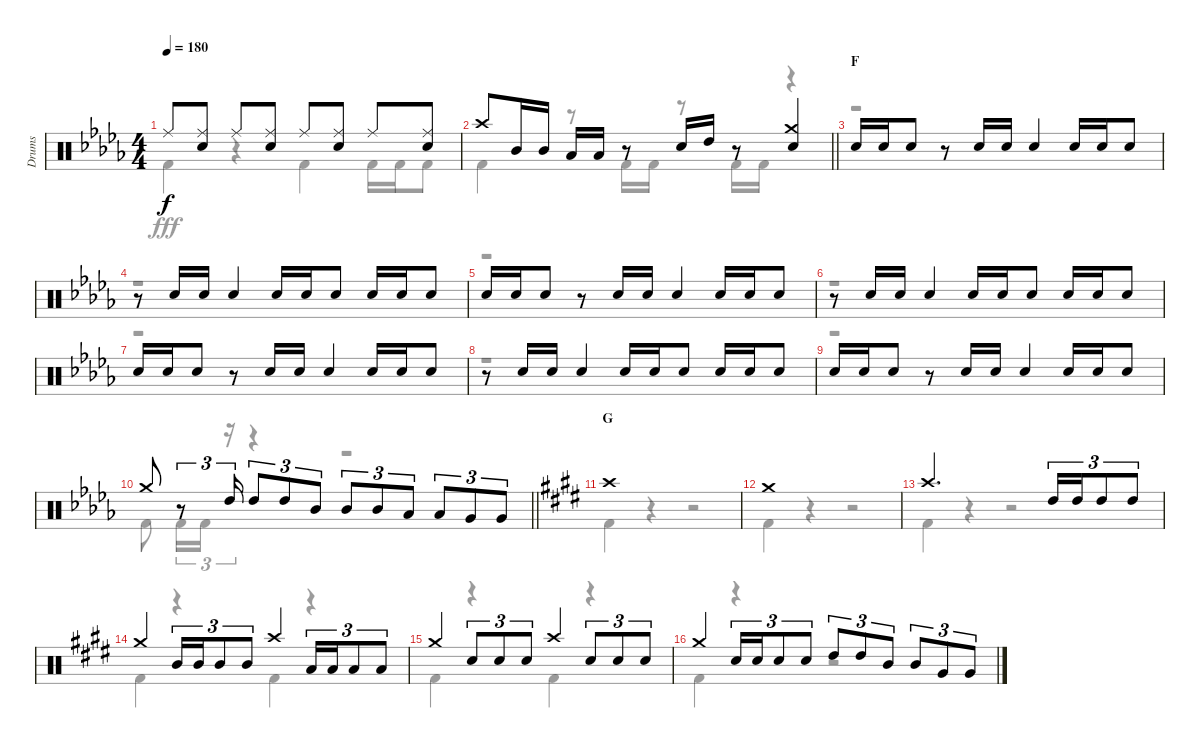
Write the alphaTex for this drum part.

\track ("Drums" "Drums") {instrument percussion}
\staff {score}
\articulation defaults
\voice
\ts (4 4)
\tempo 180
\clef neutral
\ks db "Ride (middle)".8{dy f}
("Ride (middle)" "Snare (hit) 2").8 "Ride (middle)".8 ("Ride (middle)" "Snare (hit) 2").8 "Ride (middle)".8 ("Ride (middle)" "Snare (hit) 2").8 "Ride (middle)".8 ("Ride (middle)" "Snare (hit) 2").8 |
\barLineRight lightlight "Crash high (hit)".8 "Mid Tom (hit)".16 "Mid Tom (hit)".16 "Low Tom (hit)".16 "Low Tom (hit)".16
r.8 "Snare (hit) 2".16 "High Tom (hit)".16 r.8 ("Crash medium (hit)" "Snare (hit) 2").4 |
\section ("" "F")
"Snare (hit) 2".16 "Snare (hit) 2".16 "Snare (hit) 2".8 r.8 "Snare (hit) 2".16 "Snare (hit) 2".16 "Snare (hit) 2".4 "Snare (hit) 2".16 "Snare (hit) 2".16 "Snare (hit) 2".8 |
r.8 "Snare (hit) 2".16 "Snare (hit) 2".16 "Snare (hit) 2".4 "Snare (hit) 2".16 "Snare (hit) 2".16 "Snare (hit) 2".8 "Snare (hit) 2".16 "Snare (hit) 2".16 "Snare (hit) 2".8 |
"Snare (hit) 2".16 "Snare (hit) 2".16 "Snare (hit) 2".8 r.8 "Snare (hit) 2".16 "Snare (hit) 2".16 "Snare (hit) 2".4 "Snare (hit) 2".16 "Snare (hit) 2".16 "Snare (hit) 2".8 |
r.8 "Snare (hit) 2".16 "Snare (hit) 2".16 "Snare (hit) 2".4 "Snare (hit) 2".16 "Snare (hit) 2".16 "Snare (hit) 2".8 "Snare (hit) 2".16 "Snare (hit) 2".16 "Snare (hit) 2".8 |
"Snare (hit) 2".16 "Snare (hit) 2".16 "Snare (hit) 2".8 r.8 "Snare (hit) 2".16 "Snare (hit) 2".16 "Snare (hit) 2".4 "Snare (hit) 2".16 "Snare (hit) 2".16 "Snare (hit) 2".8 |
r.8 "Snare (hit) 2".16 "Snare (hit) 2".16 "Snare (hit) 2".4 "Snare (hit) 2".16 "Snare (hit) 2".16 "Snare (hit) 2".8 "Snare (hit) 2".16 "Snare (hit) 2".16 "Snare (hit) 2".8 |
"Snare (hit) 2".16 "Snare (hit) 2".16 "Snare (hit) 2".8 r.8 "Snare (hit) 2".16 "Snare (hit) 2".16 "Snare (hit) 2".4 "Snare (hit) 2".16 "Snare (hit) 2".16 "Snare (hit) 2".8 |
\barLineRight lightlight "Crash medium (hit)".8
r.8{tu (3 2)} "High Tom (hit)".16{tu (3 2)} "High Tom (hit)".8{tu (3 2)} "High Tom (hit)".8{tu (3 2)} "Mid Tom (hit)".8{tu (3 2)} "Mid Tom (hit)".8{tu (3 2)} "Mid Tom (hit)".8{tu (3 2)} "Low Tom (hit)".8{tu (3 2)} "Low Tom (hit)".8{tu (3 2)} "Very Low Tom (hit)".8{tu (3 2)} "Very Low Tom (hit)".8{tu (3 2)} |
\section ("" "G")
\ks e "Crash high (hit)".1
|
"Crash medium (hit)".1 |
"Crash high (hit)".2{d} "High Tom (hit)".16{tu (3 2)} "High Tom (hit)".16{tu (3 2)} "High Tom (hit)".8{tu (3 2)} "High Tom (hit)".8{tu (3 2)} |
"Crash medium (hit)".4 "Mid Tom (hit)".16{tu (3 2)} "Mid Tom (hit)".16{tu (3 2)} "Mid Tom (hit)".8{tu (3 2)} "Mid Tom (hit)".8{tu (3 2)} "Crash high (hit)".4 "Low Tom (hit)".16{tu (3 2)} "Low Tom (hit)".16{tu (3 2)} "Low Tom (hit)".8{tu (3 2)} "Low Tom (hit)".8{tu (3 2)} |
"Crash medium (hit)".4 "Snare (hit) 2".8{tu (3 2)} "Snare (hit) 2".8{tu (3 2)} "Snare (hit) 2".8{tu (3 2)} "Crash high (hit)".4 "Snare (hit) 2".8{tu (3 2)} "Snare (hit) 2".8{tu (3 2)} "Snare (hit) 2".8{tu (3 2)} |
"Crash medium (hit)".4 "Snare (hit) 2".16{tu (3 2)} "Snare (hit) 2".16{tu (3 2)} "Snare (hit) 2".8{tu (3 2)} "Snare (hit) 2".8{tu (3 2)} "High Tom (hit)".8{tu (3 2)} "High Tom (hit)".8{tu (3 2)} "Mid Tom (hit)".8{tu (3 2)} "Mid Tom (hit)".8{tu (3 2)} "Very Low Tom (hit)".8{tu (3 2)} "Very Low Tom (hit)".8{tu (3 2)}
\voice
\clef neutral
\ottava regular
\simile none
\ks db "Kick (hit) 2".4{dy fff}
r.4 "Kick (hit) 2".4 "Kick (hit) 2".16 "Kick (hit) 2".16 "Kick (hit) 2".8 |
\barLineRight lightlight "Kick (hit) 2".4
r.8 "Kick (hit) 2".16 "Kick (hit) 2".16 r.8 "Kick (hit) 2".16 "Kick (hit) 2".16 r.4 |
r.1 |
r.1 |
r.1 |
r.1 |
r.1 |
r.1 |
r.1 |
\barLineRight lightlight "Kick (hit) 2".8 "Kick (hit) 2".16{tu (3 2)} "Kick (hit) 2".16{tu (3 2)}
r.16{tu (3 2)} r.4 r.2 |
\ks e "Kick (hit) 2".4
r.4 r.2 |
"Kick (hit) 2".4 r.4 r.2 |
"Kick (hit) 2".4 r.4 r.2 |
"Kick (hit) 2".4 r.4 "Kick (hit) 2".4 r.4 |
"Kick (hit) 2".4 r.4 "Kick (hit) 2".4 r.4 |
"Kick (hit) 2".4 r.4 r.2
